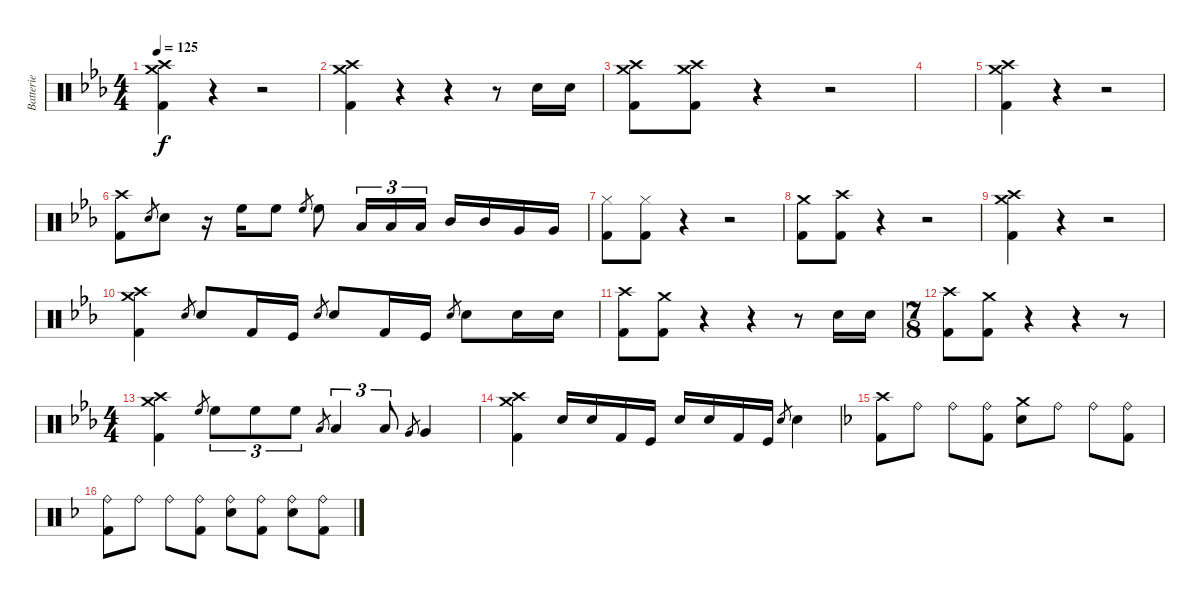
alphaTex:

\track ("Batterie" "Batterie") {instrument percussion}
\staff {score}
\articulation defaults
\ts (4 4)
\tempo 125
\clef neutral
\ks eb
("Crash high (hit)" "Crash medium (hit)" "Kick (hit) 2").4{dy f} r.4 r.2 |
("Crash high (hit)" "Crash medium (hit)" "Kick (hit) 2").4 r.4 r.4 r.8 "Electric Snare (hit)".16 "Electric Snare (hit)".16 |
("Crash high (hit)" "Crash medium (hit)" "Kick (hit) 2").8 ("Crash high (hit)" "Crash medium (hit)" "Kick (hit) 2").8 r.4 r.2 |
|
("Crash high (hit)" "Crash medium (hit)" "Kick (hit) 2").4 r.4 r.2 |
("Crash high (hit)" "Kick (hit) 2").8 "Electric Snare (hit)".8{gr} "Electric Snare (hit)".8 r.16 "High Floor Tom (hit)".16 "High Floor Tom (hit)".8 "High Floor Tom (hit)".8{gr} "High Floor Tom (hit)".8 "Low Tom (hit)".16{tu (3 2)} "Low Tom (hit)".16{tu (3 2)} "Low Tom (hit)".16{tu (3 2)} "Mid Tom (hit)".16 "Mid Tom (hit)".16 "Very Low Tom (hit)".16 "Very Low Tom (hit)".16 |
("Hi-Hat (closed)" "Kick (hit) 2").8 ("Hi-Hat (closed)" "Kick (hit) 2").8 r.4 r.2 |
("Crash medium (hit)" "Kick (hit) 2").8 ("Crash high (hit)" "Kick (hit) 2").8 r.4 r.2 |
("Crash high (hit)" "Crash medium (hit)" "Kick (hit) 2").4 r.4 r.2 |
("Crash high (hit)" "Crash medium (hit)" "Kick (hit) 2").4 "Electric Snare (hit)".8{gr} "Electric Snare (hit)".8 "Kick (hit) 2".16 "Kick (hit)".16 "Electric Snare (hit)".8{gr} "Electric Snare (hit)".8 "Kick (hit) 2".16 "Kick (hit)".16 "Electric Snare (hit)".8{gr} "Electric Snare (hit)".8 "Electric Snare (hit)".16 "Electric Snare (hit)".16 |
("Crash high (hit)" "Kick (hit) 2").8 ("Crash medium (hit)" "Kick (hit) 2").8 r.4 r.4 r.8 "Electric Snare (hit)".16 "Electric Snare (hit)".16 |
\ts (7 8)
("Crash high (hit)" "Kick (hit) 2").8 ("Crash medium (hit)" "Kick (hit) 2").8 r.4 r.4 r.8 |
\ts (4 4)
("Crash high (hit)" "Crash medium (hit)" "Kick (hit) 2").4 "High Floor Tom (hit)".8{gr} "High Floor Tom (hit)".8{tu (3 2)} "High Floor Tom (hit)".8{tu (3 2)} "High Floor Tom (hit)".8{tu (3 2)} "Low Tom (hit)".8{gr} "Low Tom (hit)".4{tu (3 2)} "Low Tom (hit)".8{tu (3 2)} "Very Low Tom (hit)".8{gr} "Very Low Tom (hit)".4 |
("Crash high (hit)" "Crash medium (hit)" "Kick (hit) 2").4 "Electric Snare (hit)".16 "Electric Snare (hit)".16 "Kick (hit) 2".16 "Kick (hit)".16 "Electric Snare (hit)".16 "Electric Snare (hit)".16 "Kick (hit) 2".16 "Kick (hit)".16 "Electric Snare (hit)".8{gr} "Electric Snare (hit)".4 |
\ks f
("Crash high (hit)" "Kick (hit) 2").8 "Ride (bell)".8 "Ride (bell)".8 ("Ride (bell)" "Kick (hit) 2").8 ("Crash medium (hit)" "Electric Snare (hit)").8 "Ride (bell)".8 "Ride (bell)".8 ("Ride (bell)" "Kick (hit) 2").8 |
("Ride (bell)" "Kick (hit) 2").8 "Ride (bell)".8 "Ride (bell)".8 ("Ride (bell)" "Kick (hit) 2").8 ("Ride (bell)" "Electric Snare (hit)").8 ("Ride (bell)" "Kick (hit) 2").8 ("Ride (bell)" "Electric Snare (hit)").8 ("Ride (bell)" "Kick (hit) 2").8
